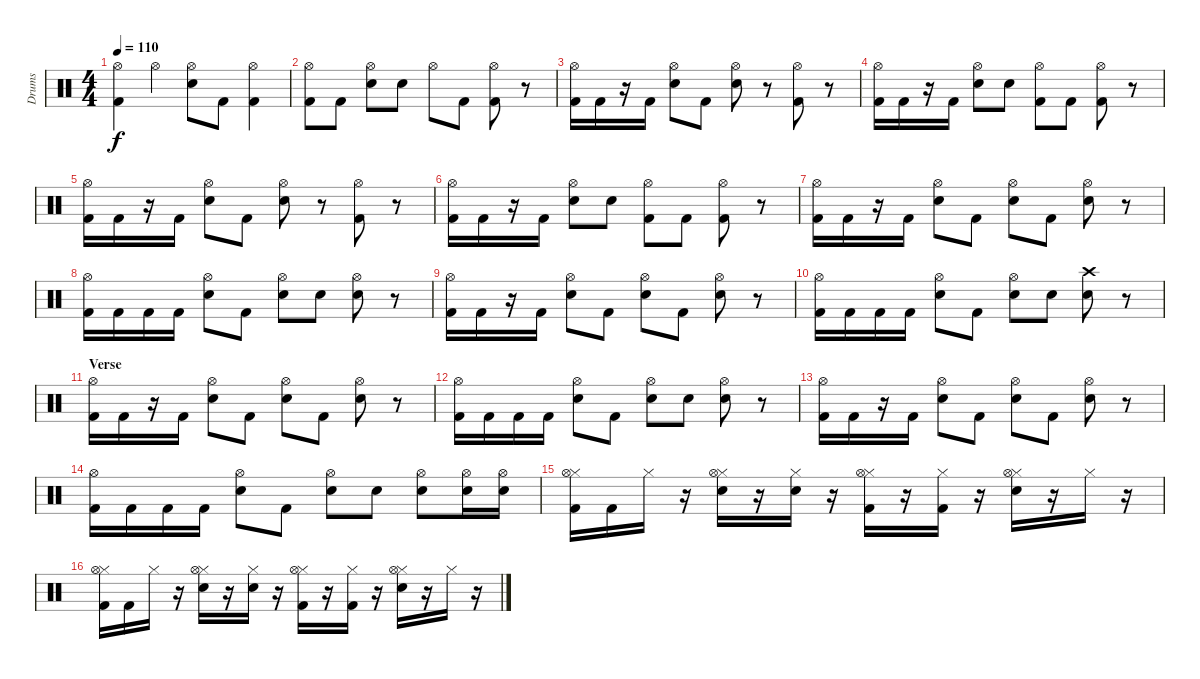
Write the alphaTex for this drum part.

\track ("Drums" "Drums") {instrument percussion}
\staff {score}
\articulation defaults
\ts (4 4)
\tempo 110
\clef neutral
\ks c
("Hi-Hat (open)" "Kick (hit) 2").4{dy f} "Hi-Hat (open)".4 ("Hi-Hat (open)" "Snare (hit) 2").8 "Kick (hit) 2".8 ("Hi-Hat (open)" "Kick (hit) 2").4 |
("Hi-Hat (open)" "Kick (hit) 2").8 "Kick (hit) 2".8 ("Hi-Hat (open)" "Snare (hit) 2").8 "Snare (hit) 2".8 "Hi-Hat (open)".8 "Kick (hit) 2".8 ("Hi-Hat (open)" "Kick (hit) 2").8 r.8 |
("Hi-Hat (open)" "Kick (hit) 2").16 "Kick (hit) 2".16 r.16 "Kick (hit) 2".16 ("Hi-Hat (open)" "Snare (hit) 2").8 "Kick (hit) 2".8 ("Hi-Hat (open)" "Snare (hit) 2").8 r.8 ("Hi-Hat (open)" "Kick (hit) 2").8 r.8 |
("Hi-Hat (open)" "Kick (hit) 2").16 "Kick (hit) 2".16 r.16 "Kick (hit) 2".16 ("Hi-Hat (open)" "Snare (hit) 2").8 "Snare (hit) 2".8 ("Hi-Hat (open)" "Kick (hit) 2").8 "Kick (hit) 2".8 ("Hi-Hat (open)" "Kick (hit) 2").8 r.8 |
("Hi-Hat (open)" "Kick (hit) 2").16 "Kick (hit) 2".16 r.16 "Kick (hit) 2".16 ("Hi-Hat (open)" "Snare (hit) 2").8 "Kick (hit) 2".8 ("Hi-Hat (open)" "Snare (hit) 2").8 r.8 ("Hi-Hat (open)" "Kick (hit) 2").8 r.8 |
("Hi-Hat (open)" "Kick (hit) 2").16 "Kick (hit) 2".16 r.16 "Kick (hit) 2".16 ("Hi-Hat (open)" "Snare (hit) 2").8 "Snare (hit) 2".8 ("Hi-Hat (open)" "Kick (hit) 2").8 "Kick (hit) 2".8 ("Hi-Hat (open)" "Kick (hit) 2").8 r.8 |
("Hi-Hat (open)" "Kick (hit) 2").16 "Kick (hit) 2".16 r.16 "Kick (hit) 2".16 ("Hi-Hat (open)" "Snare (hit) 2").8 "Kick (hit) 2".8 ("Hi-Hat (open)" "Snare (hit) 2").8 "Kick (hit) 2".8 ("Hi-Hat (open)" "Snare (hit) 2").8 r.8 |
("Hi-Hat (open)" "Kick (hit) 2").16 "Kick (hit) 2".16 "Kick (hit) 2".16 "Kick (hit) 2".16 ("Hi-Hat (open)" "Snare (hit) 2").8 "Kick (hit) 2".8 ("Hi-Hat (open)" "Snare (hit) 2").8 "Snare (hit) 2".8 ("Hi-Hat (open)" "Snare (hit) 2").8 r.8 |
("Hi-Hat (open)" "Kick (hit) 2").16 "Kick (hit) 2".16 r.16 "Kick (hit) 2".16 ("Hi-Hat (open)" "Snare (hit) 2").8 "Kick (hit) 2".8 ("Hi-Hat (open)" "Snare (hit) 2").8 "Kick (hit) 2".8 ("Hi-Hat (open)" "Snare (hit) 2").8 r.8 |
("Hi-Hat (open)" "Kick (hit) 2").16 "Kick (hit) 2".16 "Kick (hit) 2".16 "Kick (hit) 2".16 ("Hi-Hat (open)" "Snare (hit) 2").8 "Kick (hit) 2".8 ("Hi-Hat (open)" "Snare (hit) 2").8 "Snare (hit) 2".8 ("Crash high (hit)" "Snare (hit) 2").8 r.8 |
\section ("" "Verse")
("Hi-Hat (open)" "Kick (hit) 2").16 "Kick (hit) 2".16 r.16 "Kick (hit) 2".16 ("Hi-Hat (open)" "Snare (hit) 2").8 "Kick (hit) 2".8 ("Hi-Hat (open)" "Snare (hit) 2").8 "Kick (hit) 2".8 ("Hi-Hat (open)" "Snare (hit) 2").8 r.8 |
("Hi-Hat (open)" "Kick (hit) 2").16 "Kick (hit) 2".16 "Kick (hit) 2".16 "Kick (hit) 2".16 ("Hi-Hat (open)" "Snare (hit) 2").8 "Kick (hit) 2".8 ("Hi-Hat (open)" "Snare (hit) 2").8 "Snare (hit) 2".8 ("Hi-Hat (open)" "Snare (hit) 2").8 r.8 |
("Hi-Hat (open)" "Kick (hit) 2").16 "Kick (hit) 2".16 r.16 "Kick (hit) 2".16 ("Hi-Hat (open)" "Snare (hit) 2").8 "Kick (hit) 2".8 ("Hi-Hat (open)" "Snare (hit) 2").8 "Kick (hit) 2".8 ("Hi-Hat (open)" "Snare (hit) 2").8 r.8 |
("Hi-Hat (open)" "Kick (hit) 2").16 "Kick (hit) 2".16 "Kick (hit) 2".16 "Kick (hit) 2".16 ("Hi-Hat (open)" "Snare (hit) 2").8 "Kick (hit) 2".8 ("Hi-Hat (open)" "Snare (hit) 2").8 "Snare (hit) 2".8 ("Hi-Hat (open)" "Snare (hit) 2").8 ("Hi-Hat (open)" "Snare (hit) 2").16 ("Hi-Hat (open)" "Snare (hit) 2").16 |
("Hi-Hat (closed)" "Hi-Hat (open)" "Kick (hit) 2").16 "Kick (hit) 2".16 "Hi-Hat (closed)".16 r.16 ("Hi-Hat (closed)" "Hi-Hat (open)" "Snare (hit) 2").16 r.16 ("Hi-Hat (closed)" "Snare (hit) 2").16 r.16 ("Hi-Hat (closed)" "Hi-Hat (open)" "Kick (hit) 2").16 r.16 ("Hi-Hat (closed)" "Kick (hit) 2").16 r.16 ("Hi-Hat (closed)" "Hi-Hat (open)" "Snare (hit) 2").16 r.16 "Hi-Hat (closed)".16 r.16 |
("Hi-Hat (closed)" "Hi-Hat (open)" "Kick (hit) 2").16 "Kick (hit) 2".16 "Hi-Hat (closed)".16 r.16 ("Hi-Hat (closed)" "Hi-Hat (open)" "Snare (hit) 2").16 r.16 ("Hi-Hat (closed)" "Snare (hit) 2").16 r.16 ("Hi-Hat (closed)" "Hi-Hat (open)" "Kick (hit) 2").16 r.16 ("Hi-Hat (closed)" "Kick (hit) 2").16 r.16 ("Hi-Hat (closed)" "Hi-Hat (open)" "Snare (hit) 2").16 r.16 "Hi-Hat (closed)".16 r.16
